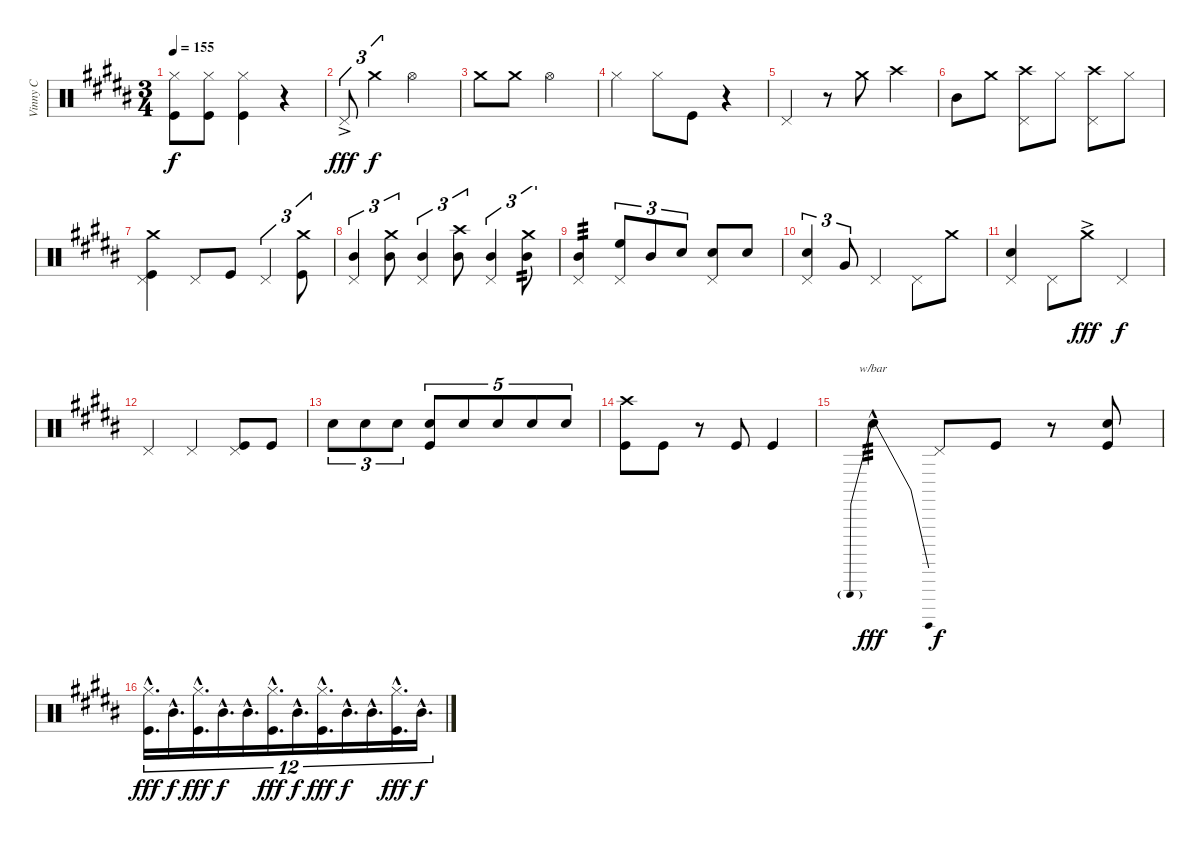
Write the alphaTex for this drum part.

\track ("Vinny C" "Vinny C") {instrument percussion}
\staff {score}
\articulation defaults
\ts (3 4)
\tempo 155
\clef neutral
\ks b
("Hi-Hat (closed)" "Kick (hit)").8{dy f} ("Hi-Hat (closed)" "Kick (hit)").8 ("Hi-Hat (closed)" "Kick (hit)").4 r.4 |
"Pedal Hi-Hat (hit)"{ac}.8{tu (3 2) dy fff} "Crash medium (hit)".4{tu (3 2) dy f} "Hi-Hat (open)".2 |
"Crash medium (hit)".8 "Crash medium (hit)".8 "Hi-Hat (open)".2 |
"Hi-Hat (closed)".4 "Hi-Hat (closed)".8 "Kick (hit)".8 r.4 |
"Pedal Hi-Hat (hit)".4 r.8 "Crash medium (hit)".8 "Crash high (hit)".4 |
"Mid Tom (hit)".8 "Crash medium (hit)".8 ("Pedal Hi-Hat (hit)" "Crash high (hit)").8 "Hi-Hat (closed)".8 ("Pedal Hi-Hat (hit)" "Crash high (hit)").8 "Hi-Hat (closed)".8 |
("Pedal Hi-Hat (hit)" "Crash medium (hit)" "Kick (hit)").4 "Pedal Hi-Hat (hit)".8 "Kick (hit)".8 "Pedal Hi-Hat (hit)".4{tu (3 2)} ("Crash medium (hit)" "Kick (hit)").8{tu (3 2)} |
("Pedal Hi-Hat (hit)" "Mid Tom (hit)").4{tu (3 2)} ("Crash medium (hit)" "Mid Tom (hit)").8{tu (3 2)} ("Pedal Hi-Hat (hit)" "Mid Tom (hit)").4{tu (3 2)} ("Crash high (hit)" "Mid Tom (hit)").8{tu (3 2)} ("Pedal Hi-Hat (hit)" "Mid Tom (hit)").4{tu (3 2)} ("Crash medium (hit)" "Mid Tom (hit)").8{tu (3 2) tp 2} |
("Pedal Hi-Hat (hit)" "Mid Tom (hit)").4{tp 3} ("Pedal Hi-Hat (hit)" "High Floor Tom (hit)").8{tu (3 2)} "Mid Tom (hit)".8{tu (3 2)} "Electric Snare (hit)".8{tu (3 2)} ("Pedal Hi-Hat (hit)" "Electric Snare (hit)").8 "Electric Snare (hit)".8 |
("Pedal Hi-Hat (hit)" "Electric Snare (hit)").4{tu (3 2)} "Very Low Tom (hit)".8{tu (3 2)} "Pedal Hi-Hat (hit)".4 "Pedal Hi-Hat (hit)".8 "Crash medium (hit)".8 |
("Pedal Hi-Hat (hit)" "Electric Snare (hit)").4 "Pedal Hi-Hat (hit)".8 "Crash medium (hit)"{ac}.8{dy fff} "Pedal Hi-Hat (hit)".4{dy f} |
"Pedal Hi-Hat (hit)".4 "Pedal Hi-Hat (hit)".4 ("Pedal Hi-Hat (hit)" "Kick (hit)").8 "Kick (hit)".8 |
"Electric Snare (hit)".8{tu (3 2)} "Electric Snare (hit)".8{tu (3 2)} "Electric Snare (hit)".8{tu (3 2)} ("Electric Snare (hit)" "Kick (hit)").8{tu (5 4)} "Electric Snare (hit)".8{tu (5 4)} "Electric Snare (hit)".8{tu (5 4)} "Electric Snare (hit)".8{tu (5 4)} "Electric Snare (hit)".8{tu (5 4)} |
("Crash high (hit)" "Kick (hit)").8 "Kick (hit)".8 r.8 "Kick (hit)".8 "Kick (hit)".4 |
"Electric Snare (hit)"{hac}.4{tbe (predivedive default 0 24 60 -24) tp 3 dy fff} "Pedal Hi-Hat (hit)".8{dy f} "Kick (hit)".8 r.8 ("Electric Snare (hit)" "Kick (hit)").8 |
("Hi-Hat (closed)"{hac} "Kick (hit)"{hac}).16{d tu (12 8) dy fff} "Mid Tom (hit)"{hac}.16{d tu (12 8) dy f} ("Hi-Hat (closed)"{hac} "Kick (hit)"{hac}).16{d tu (12 8) dy fff} "Mid Tom (hit)"{hac}.16{d tu (12 8) dy f} "Mid Tom (hit)"{hac}.16{d tu (12 8)} ("Hi-Hat (closed)"{hac} "Kick (hit)"{hac}).16{d tu (12 8) dy fff} "Mid Tom (hit)"{hac}.16{d tu (12 8) dy f} ("Hi-Hat (closed)"{hac} "Kick (hit)"{hac}).16{d tu (12 8) dy fff} "Mid Tom (hit)"{hac}.16{d tu (12 8) dy f} "Mid Tom (hit)"{hac}.16{d tu (12 8)} ("Hi-Hat (closed)"{hac} "Kick (hit)"{hac}).16{d tu (12 8) dy fff} "Mid Tom (hit)"{hac}.16{d tu (12 8) dy f}
